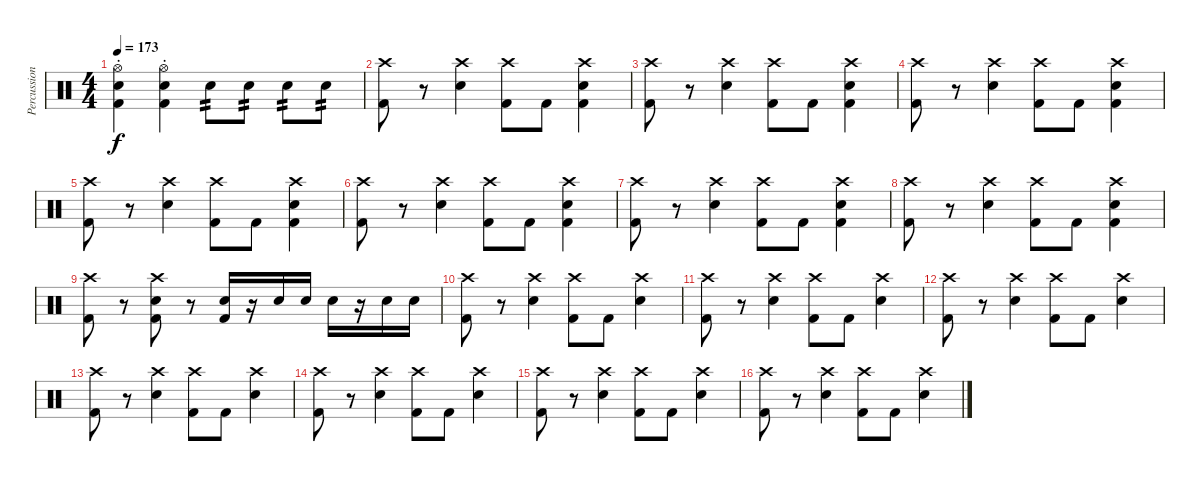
\track ("Percussion" "Percussion") {instrument percussion}
\staff {score}
\articulation defaults
\ts (4 4)
\tempo 173
\clef neutral
\ks c
("Electric Snare (hit)"{st} "Kick (hit) 2"{st} "Hi-Hat (open)"{st}).4{dy f} ("Kick (hit) 2"{st} "Electric Snare (hit)"{st} "Hi-Hat (open)"{st}).4 "Snare (hit) 2".8{tp 2} "Snare (hit) 2".8{tp 2} "Snare (hit) 2".8{tp 2} "Snare (hit) 2".8{tp 2} |
("Kick (hit) 2" "Crash high (hit)").8 r.8 ("Electric Snare (hit)" "Crash high (hit)").4 ("Kick (hit) 2" "Crash high (hit)").8 "Kick (hit) 2".8 ("Kick (hit) 2" "Electric Snare (hit)" "Crash high (hit)").4 |
("Kick (hit) 2" "Crash high (hit)").8 r.8 ("Electric Snare (hit)" "Crash high (hit)").4 ("Kick (hit) 2" "Crash high (hit)").8 "Kick (hit) 2".8 ("Kick (hit) 2" "Electric Snare (hit)" "Crash high (hit)").4 |
("Kick (hit) 2" "Crash high (hit)").8 r.8 ("Electric Snare (hit)" "Crash high (hit)").4 ("Kick (hit) 2" "Crash high (hit)").8 "Kick (hit) 2".8 ("Kick (hit) 2" "Electric Snare (hit)" "Crash high (hit)").4 |
("Kick (hit) 2" "Crash high (hit)").8 r.8 ("Electric Snare (hit)" "Crash high (hit)").4 ("Kick (hit) 2" "Crash high (hit)").8 "Kick (hit) 2".8 ("Kick (hit) 2" "Electric Snare (hit)" "Crash high (hit)").4 |
("Kick (hit) 2" "Crash high (hit)").8 r.8 ("Electric Snare (hit)" "Crash high (hit)").4 ("Kick (hit) 2" "Crash high (hit)").8 "Kick (hit) 2".8 ("Kick (hit) 2" "Electric Snare (hit)" "Crash high (hit)").4 |
("Kick (hit) 2" "Crash high (hit)").8 r.8 ("Electric Snare (hit)" "Crash high (hit)").4 ("Kick (hit) 2" "Crash high (hit)").8 "Kick (hit) 2".8 ("Kick (hit) 2" "Electric Snare (hit)" "Crash high (hit)").4 |
("Kick (hit) 2" "Crash high (hit)").8 r.8 ("Electric Snare (hit)" "Crash high (hit)").4 ("Kick (hit) 2" "Crash high (hit)").8 "Kick (hit) 2".8 ("Kick (hit) 2" "Electric Snare (hit)" "Crash high (hit)").4 |
("Kick (hit) 2" "Crash high (hit)").8 r.8 ("Kick (hit) 2" "Electric Snare (hit)" "Crash high (hit)").8 r.8 ("Kick (hit) 2" "Electric Snare (hit)").16 r.16 "Electric Snare (hit)".16 "Electric Snare (hit)".16 "Electric Snare (hit)".16 r.16 "Electric Snare (hit)".16 "Electric Snare (hit)".16 |
("Kick (hit) 2" "Crash high (hit)").8 r.8 ("Electric Snare (hit)" "Crash high (hit)").4 ("Kick (hit) 2" "Crash high (hit)").8 "Kick (hit) 2".8 ("Electric Snare (hit)" "Crash high (hit)").4 |
("Kick (hit) 2" "Crash high (hit)").8 r.8 ("Electric Snare (hit)" "Crash high (hit)").4 ("Kick (hit) 2" "Crash high (hit)").8 "Kick (hit) 2".8 ("Electric Snare (hit)" "Crash high (hit)").4 |
("Kick (hit) 2" "Crash high (hit)").8 r.8 ("Electric Snare (hit)" "Crash high (hit)").4 ("Kick (hit) 2" "Crash high (hit)").8 "Kick (hit) 2".8 ("Electric Snare (hit)" "Crash high (hit)").4 |
("Kick (hit) 2" "Crash high (hit)").8 r.8 ("Electric Snare (hit)" "Crash high (hit)").4 ("Kick (hit) 2" "Crash high (hit)").8 "Kick (hit) 2".8 ("Electric Snare (hit)" "Crash high (hit)").4 |
("Kick (hit) 2" "Crash high (hit)").8 r.8 ("Electric Snare (hit)" "Crash high (hit)").4 ("Kick (hit) 2" "Crash high (hit)").8 "Kick (hit) 2".8 ("Electric Snare (hit)" "Crash high (hit)").4 |
("Kick (hit) 2" "Crash high (hit)").8 r.8 ("Electric Snare (hit)" "Crash high (hit)").4 ("Kick (hit) 2" "Crash high (hit)").8 "Kick (hit) 2".8 ("Electric Snare (hit)" "Crash high (hit)").4 |
("Kick (hit) 2" "Crash high (hit)").8 r.8 ("Electric Snare (hit)" "Crash high (hit)").4 ("Kick (hit) 2" "Crash high (hit)").8 "Kick (hit) 2".8 ("Electric Snare (hit)" "Crash high (hit)").4
